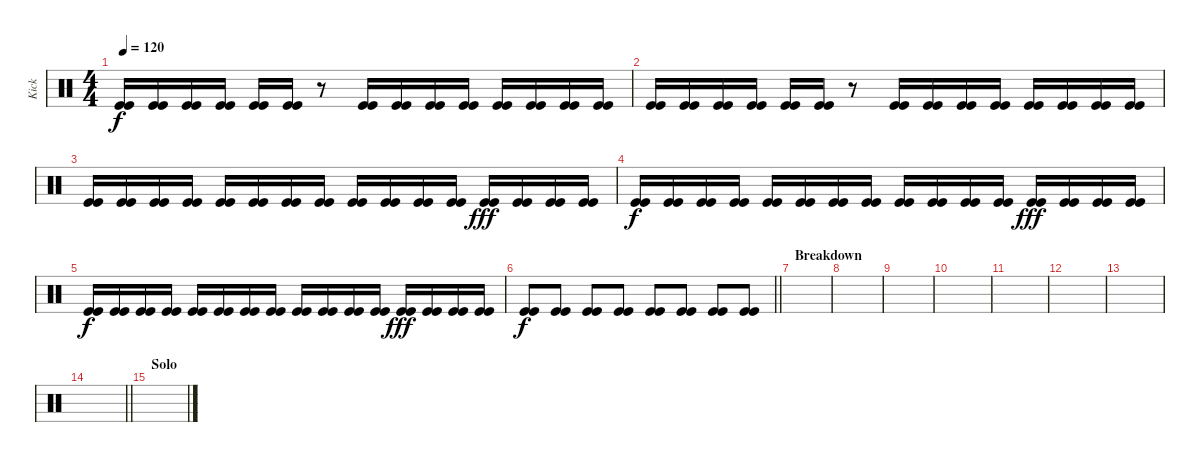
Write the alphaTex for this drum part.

\track ("Kick" "Kick") {instrument percussion}
\staff {score}
\articulation defaults
\ts (4 4)
\tempo 120
\clef neutral
\ks c
("Kick (hit)" "Kick (hit)").16{dy f} ("Kick (hit)" "Kick (hit)").16 ("Kick (hit)" "Kick (hit)").16 ("Kick (hit)" "Kick (hit)").16 ("Kick (hit)" "Kick (hit)").16 ("Kick (hit)" "Kick (hit)").16 r.8 ("Kick (hit)" "Kick (hit)").16 ("Kick (hit)" "Kick (hit)").16 ("Kick (hit)" "Kick (hit)").16 ("Kick (hit)" "Kick (hit)").16 ("Kick (hit)" "Kick (hit)").16 ("Kick (hit)" "Kick (hit)").16 ("Kick (hit)" "Kick (hit)").16 ("Kick (hit)" "Kick (hit)").16 |
("Kick (hit)" "Kick (hit)").16 ("Kick (hit)" "Kick (hit)").16 ("Kick (hit)" "Kick (hit)").16 ("Kick (hit)" "Kick (hit)").16 ("Kick (hit)" "Kick (hit)").16 ("Kick (hit)" "Kick (hit)").16 r.8 ("Kick (hit)" "Kick (hit)").16 ("Kick (hit)" "Kick (hit)").16 ("Kick (hit)" "Kick (hit)").16 ("Kick (hit)" "Kick (hit)").16 ("Kick (hit)" "Kick (hit)").16 ("Kick (hit)" "Kick (hit)").16 ("Kick (hit)" "Kick (hit)").16 ("Kick (hit)" "Kick (hit)").16 |
("Kick (hit)" "Kick (hit)").16 ("Kick (hit)" "Kick (hit)").16 ("Kick (hit)" "Kick (hit)").16 ("Kick (hit)" "Kick (hit)").16 ("Kick (hit)" "Kick (hit)").16 ("Kick (hit)" "Kick (hit)").16 ("Kick (hit)" "Kick (hit)").16 ("Kick (hit)" "Kick (hit)").16 ("Kick (hit)" "Kick (hit)").16 ("Kick (hit)" "Kick (hit)").16 ("Kick (hit)" "Kick (hit)").16 ("Kick (hit)" "Kick (hit)").16 ("Kick (hit)" "Kick (hit)").16{dy fff} ("Kick (hit)" "Kick (hit)").16 ("Kick (hit)" "Kick (hit)").16 ("Kick (hit)" "Kick (hit)").16 |
("Kick (hit)" "Kick (hit)").16{dy f} ("Kick (hit)" "Kick (hit)").16 ("Kick (hit)" "Kick (hit)").16 ("Kick (hit)" "Kick (hit)").16 ("Kick (hit)" "Kick (hit)").16 ("Kick (hit)" "Kick (hit)").16 ("Kick (hit)" "Kick (hit)").16 ("Kick (hit)" "Kick (hit)").16 ("Kick (hit)" "Kick (hit)").16 ("Kick (hit)" "Kick (hit)").16 ("Kick (hit)" "Kick (hit)").16 ("Kick (hit)" "Kick (hit)").16 ("Kick (hit)" "Kick (hit)").16{dy fff} ("Kick (hit)" "Kick (hit)").16 ("Kick (hit)" "Kick (hit)").16 ("Kick (hit)" "Kick (hit)").16 |
("Kick (hit)" "Kick (hit)").16{dy f} ("Kick (hit)" "Kick (hit)").16 ("Kick (hit)" "Kick (hit)").16 ("Kick (hit)" "Kick (hit)").16 ("Kick (hit)" "Kick (hit)").16 ("Kick (hit)" "Kick (hit)").16 ("Kick (hit)" "Kick (hit)").16 ("Kick (hit)" "Kick (hit)").16 ("Kick (hit)" "Kick (hit)").16 ("Kick (hit)" "Kick (hit)").16 ("Kick (hit)" "Kick (hit)").16 ("Kick (hit)" "Kick (hit)").16 ("Kick (hit)" "Kick (hit)").16{dy fff} ("Kick (hit)" "Kick (hit)").16 ("Kick (hit)" "Kick (hit)").16 ("Kick (hit)" "Kick (hit)").16 |
\barLineRight lightlight
("Kick (hit)" "Kick (hit)").8{dy f} ("Kick (hit)" "Kick (hit)").8 ("Kick (hit)" "Kick (hit)").8 ("Kick (hit)" "Kick (hit)").8 ("Kick (hit)" "Kick (hit)").8 ("Kick (hit)" "Kick (hit)").8 ("Kick (hit)" "Kick (hit)").8 ("Kick (hit)" "Kick (hit)").8 |
\section ("" "Breakdown")
|
|
|
|
|
|
|
\barLineRight lightlight
|
\section ("" "Solo")
